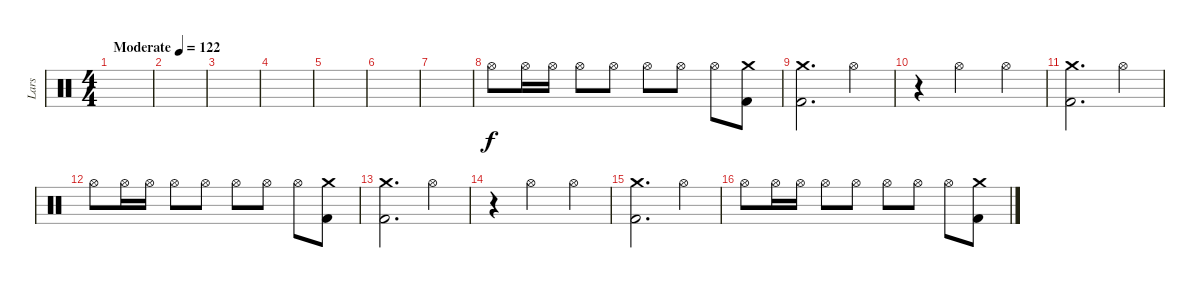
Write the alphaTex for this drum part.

\track ("Lars" "Lars") {instrument percussion}
\staff {score}
\articulation defaults
\ts (4 4)
\tempo (122 "Moderate")
\clef neutral
\ks c
|
|
|
|
|
|
|
"Hi-Hat (open)".8 "Hi-Hat (open)".16 "Hi-Hat (open)".16 "Hi-Hat (open)".8 "Hi-Hat (open)".8 "Hi-Hat (open)".8 "Hi-Hat (open)".8 "Hi-Hat (open)".8 ("Crash medium (hit)" "Kick (hit) 2").8 |
("Crash medium (hit)" "Kick (hit) 2").2{d} "Hi-Hat (open)".4 |
r.4 "Hi-Hat (open)".2 "Hi-Hat (open)".4 |
("Crash medium (hit)" "Kick (hit) 2").2{d} "Hi-Hat (open)".4 |
"Hi-Hat (open)".8 "Hi-Hat (open)".16 "Hi-Hat (open)".16 "Hi-Hat (open)".8 "Hi-Hat (open)".8 "Hi-Hat (open)".8 "Hi-Hat (open)".8 "Hi-Hat (open)".8 ("Crash medium (hit)" "Kick (hit) 2").8 |
("Crash medium (hit)" "Kick (hit) 2").2{d} "Hi-Hat (open)".4 |
r.4 "Hi-Hat (open)".2 "Hi-Hat (open)".4 |
("Crash medium (hit)" "Kick (hit) 2").2{d} "Hi-Hat (open)".4 |
"Hi-Hat (open)".8 "Hi-Hat (open)".16 "Hi-Hat (open)".16 "Hi-Hat (open)".8 "Hi-Hat (open)".8 "Hi-Hat (open)".8 "Hi-Hat (open)".8 "Hi-Hat (open)".8 ("Crash medium (hit)" "Kick (hit) 2").8
